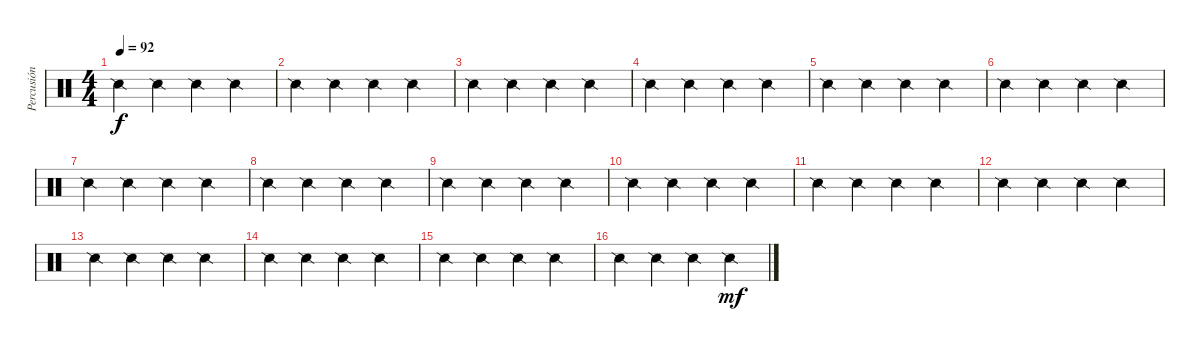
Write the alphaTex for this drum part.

\track ("Percusión" "Percusión") {instrument percussion}
\staff {score}
\articulation defaults
\ts (4 4)
\tempo 92
\clef neutral
\ks c "Snare (side stick) 2".4{dy f} "Snare (side stick) 2".4 "Snare (side stick) 2".4 "Snare (side stick) 2".4
|
"Snare (side stick) 2".4 "Snare (side stick) 2".4 "Snare (side stick) 2".4 "Snare (side stick) 2".4 |
"Snare (side stick) 2".4 "Snare (side stick) 2".4 "Snare (side stick) 2".4 "Snare (side stick) 2".4 |
"Snare (side stick) 2".4 "Snare (side stick) 2".4 "Snare (side stick) 2".4 "Snare (side stick) 2".4 |
"Snare (side stick) 2".4 "Snare (side stick) 2".4 "Snare (side stick) 2".4 "Snare (side stick) 2".4 |
"Snare (side stick) 2".4 "Snare (side stick) 2".4 "Snare (side stick) 2".4 "Snare (side stick) 2".4 |
"Snare (side stick) 2".4 "Snare (side stick) 2".4 "Snare (side stick) 2".4 "Snare (side stick) 2".4 |
"Snare (side stick) 2".4 "Snare (side stick) 2".4 "Snare (side stick) 2".4 "Snare (side stick) 2".4 |
"Snare (side stick) 2".4 "Snare (side stick) 2".4 "Snare (side stick) 2".4 "Snare (side stick) 2".4 |
"Snare (side stick) 2".4 "Snare (side stick) 2".4 "Snare (side stick) 2".4 "Snare (side stick) 2".4 |
"Snare (side stick) 2".4 "Snare (side stick) 2".4 "Snare (side stick) 2".4 "Snare (side stick) 2".4 |
"Snare (side stick) 2".4 "Snare (side stick) 2".4 "Snare (side stick) 2".4 "Snare (side stick) 2".4 |
"Snare (side stick) 2".4 "Snare (side stick) 2".4 "Snare (side stick) 2".4 "Snare (side stick) 2".4 |
"Snare (side stick) 2".4 "Snare (side stick) 2".4 "Snare (side stick) 2".4 "Snare (side stick) 2".4 |
"Snare (side stick) 2".4 "Snare (side stick) 2".4 "Snare (side stick) 2".4 "Snare (side stick) 2".4 |
"Snare (side stick) 2".4 "Snare (side stick) 2".4 "Snare (side stick) 2".4 "Snare (side stick) 2".4{dy mf}
